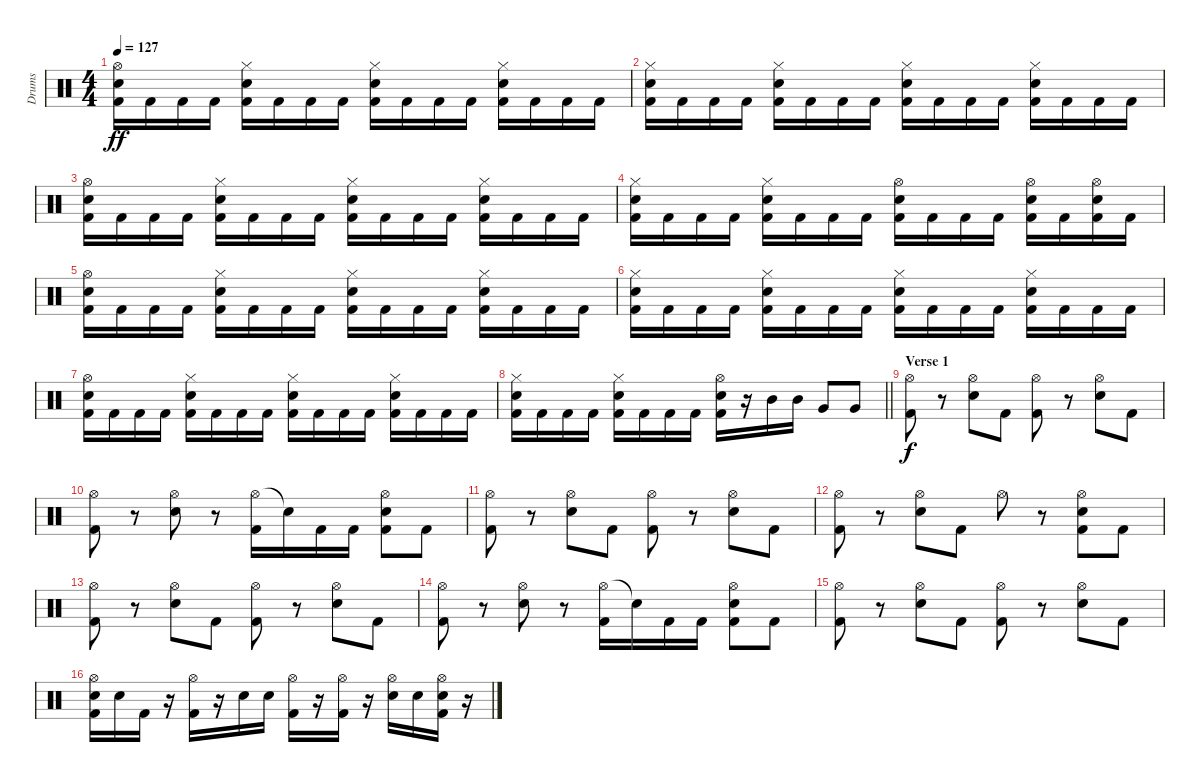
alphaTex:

\track ("Drums" "Drums") {instrument percussion}
\staff {score}
\articulation defaults
\ts (4 4)
\tempo 127
\clef neutral
\ks c
("Hi-Hat (open)" "Electric Snare (hit)" "Kick (hit) 2").16{dy ff} "Kick (hit) 2".16 "Kick (hit) 2".16 "Kick (hit) 2".16 ("Hi-Hat (closed)" "Electric Snare (hit)" "Kick (hit) 2").16 "Kick (hit) 2".16 "Kick (hit) 2".16 "Kick (hit) 2".16 ("Hi-Hat (closed)" "Electric Snare (hit)" "Kick (hit) 2").16 "Kick (hit) 2".16 "Kick (hit) 2".16 "Kick (hit) 2".16 ("Hi-Hat (closed)" "Electric Snare (hit)" "Kick (hit) 2").16 "Kick (hit) 2".16 "Kick (hit) 2".16 "Kick (hit) 2".16 |
("Hi-Hat (closed)" "Electric Snare (hit)" "Kick (hit) 2").16 "Kick (hit) 2".16 "Kick (hit) 2".16 "Kick (hit) 2".16 ("Hi-Hat (closed)" "Electric Snare (hit)" "Kick (hit) 2").16 "Kick (hit) 2".16 "Kick (hit) 2".16 "Kick (hit) 2".16 ("Hi-Hat (closed)" "Electric Snare (hit)" "Kick (hit) 2").16 "Kick (hit) 2".16 "Kick (hit) 2".16 "Kick (hit) 2".16 ("Hi-Hat (closed)" "Electric Snare (hit)" "Kick (hit) 2").16 "Kick (hit) 2".16 "Kick (hit) 2".16 "Kick (hit) 2".16 |
("Hi-Hat (open)" "Electric Snare (hit)" "Kick (hit) 2").16 "Kick (hit) 2".16 "Kick (hit) 2".16 "Kick (hit) 2".16 ("Hi-Hat (closed)" "Electric Snare (hit)" "Kick (hit) 2").16 "Kick (hit) 2".16 "Kick (hit) 2".16 "Kick (hit) 2".16 ("Hi-Hat (closed)" "Electric Snare (hit)" "Kick (hit) 2").16 "Kick (hit) 2".16 "Kick (hit) 2".16 "Kick (hit) 2".16 ("Hi-Hat (closed)" "Electric Snare (hit)" "Kick (hit) 2").16 "Kick (hit) 2".16 "Kick (hit) 2".16 "Kick (hit) 2".16 |
("Hi-Hat (closed)" "Electric Snare (hit)" "Kick (hit) 2").16 "Kick (hit) 2".16 "Kick (hit) 2".16 "Kick (hit) 2".16 ("Hi-Hat (closed)" "Electric Snare (hit)" "Kick (hit) 2").16 "Kick (hit) 2".16 "Kick (hit) 2".16 "Kick (hit) 2".16 ("Hi-Hat (open)" "Electric Snare (hit)" "Kick (hit) 2").16 "Kick (hit) 2".16 "Kick (hit) 2".16 "Kick (hit) 2".16 ("Hi-Hat (open)" "Electric Snare (hit)" "Kick (hit) 2").16 "Kick (hit) 2".16 ("Hi-Hat (open)" "Electric Snare (hit)" "Kick (hit) 2").16 "Kick (hit) 2".16 |
("Hi-Hat (open)" "Electric Snare (hit)" "Kick (hit) 2").16 "Kick (hit) 2".16 "Kick (hit) 2".16 "Kick (hit) 2".16 ("Hi-Hat (closed)" "Electric Snare (hit)" "Kick (hit) 2").16 "Kick (hit) 2".16 "Kick (hit) 2".16 "Kick (hit) 2".16 ("Hi-Hat (closed)" "Electric Snare (hit)" "Kick (hit) 2").16 "Kick (hit) 2".16 "Kick (hit) 2".16 "Kick (hit) 2".16 ("Hi-Hat (closed)" "Electric Snare (hit)" "Kick (hit) 2").16 "Kick (hit) 2".16 "Kick (hit) 2".16 "Kick (hit) 2".16 |
("Hi-Hat (closed)" "Electric Snare (hit)" "Kick (hit) 2").16 "Kick (hit) 2".16 "Kick (hit) 2".16 "Kick (hit) 2".16 ("Hi-Hat (closed)" "Electric Snare (hit)" "Kick (hit) 2").16 "Kick (hit) 2".16 "Kick (hit) 2".16 "Kick (hit) 2".16 ("Hi-Hat (closed)" "Electric Snare (hit)" "Kick (hit) 2").16 "Kick (hit) 2".16 "Kick (hit) 2".16 "Kick (hit) 2".16 ("Hi-Hat (closed)" "Electric Snare (hit)" "Kick (hit) 2").16 "Kick (hit) 2".16 "Kick (hit) 2".16 "Kick (hit) 2".16 |
("Hi-Hat (open)" "Electric Snare (hit)" "Kick (hit) 2").16 "Kick (hit) 2".16 "Kick (hit) 2".16 "Kick (hit) 2".16 ("Hi-Hat (closed)" "Electric Snare (hit)" "Kick (hit) 2").16 "Kick (hit) 2".16 "Kick (hit) 2".16 "Kick (hit) 2".16 ("Hi-Hat (closed)" "Electric Snare (hit)" "Kick (hit) 2").16 "Kick (hit) 2".16 "Kick (hit) 2".16 "Kick (hit) 2".16 ("Hi-Hat (closed)" "Electric Snare (hit)" "Kick (hit) 2").16 "Kick (hit) 2".16 "Kick (hit) 2".16 "Kick (hit) 2".16 |
\barLineRight lightlight
("Hi-Hat (closed)" "Electric Snare (hit)" "Kick (hit) 2").16 "Kick (hit) 2".16 "Kick (hit) 2".16 "Kick (hit) 2".16 ("Hi-Hat (closed)" "Electric Snare (hit)" "Kick (hit) 2").16 "Kick (hit) 2".16 "Kick (hit) 2".16 "Kick (hit) 2".16 ("Hi-Hat (open)" "Electric Snare (hit)" "Kick (hit) 2").16 r.16 "Mid Tom (hit)".16 "Mid Tom (hit)".16 "Very Low Tom (hit)".8 "Very Low Tom (hit)".8 |
\section ("" "Verse 1")
("Hi-Hat (open)" "Kick (hit) 2").8{dy f} r.8 ("Hi-Hat (open)" "Electric Snare (hit)").8 "Kick (hit) 2".8 ("Hi-Hat (open)" "Kick (hit) 2").8 r.8 ("Hi-Hat (open)" "Electric Snare (hit)").8 "Kick (hit) 2".8 |
("Hi-Hat (open)" "Kick (hit) 2").8 r.8 ("Hi-Hat (open)" "Electric Snare (hit)").8 r.8 ("Hi-Hat (open)" "Kick (hit) 2").16 "Snare (hit)"{t}.16 "Kick (hit) 2".16 "Kick (hit) 2".16 ("Hi-Hat (open)" "Electric Snare (hit)" "Kick (hit) 2").8 "Kick (hit) 2".8 |
("Hi-Hat (open)" "Kick (hit) 2").8 r.8 ("Hi-Hat (open)" "Electric Snare (hit)").8 "Kick (hit) 2".8 ("Hi-Hat (open)" "Kick (hit) 2").8 r.8 ("Hi-Hat (open)" "Electric Snare (hit)").8 "Kick (hit) 2".8 |
("Hi-Hat (open)" "Kick (hit) 2").8 r.8 ("Hi-Hat (open)" "Electric Snare (hit)").8 "Kick (hit) 2".8 "Hi-Hat (open)".8 r.8 ("Hi-Hat (open)" "Electric Snare (hit)" "Kick (hit) 2").8 "Kick (hit) 2".8 |
("Hi-Hat (open)" "Kick (hit) 2").8 r.8 ("Hi-Hat (open)" "Electric Snare (hit)").8 "Kick (hit) 2".8 ("Hi-Hat (open)" "Kick (hit) 2").8 r.8 ("Hi-Hat (open)" "Electric Snare (hit)").8 "Kick (hit) 2".8 |
("Hi-Hat (open)" "Kick (hit) 2").8 r.8 ("Hi-Hat (open)" "Electric Snare (hit)").8 r.8 ("Hi-Hat (open)" "Kick (hit) 2").16 "Snare (hit)"{t}.16 "Kick (hit) 2".16 "Kick (hit) 2".16 ("Hi-Hat (open)" "Electric Snare (hit)" "Kick (hit) 2").8 "Kick (hit) 2".8 |
("Hi-Hat (open)" "Kick (hit) 2").8 r.8 ("Hi-Hat (open)" "Electric Snare (hit)").8 "Kick (hit) 2".8 ("Hi-Hat (open)" "Kick (hit) 2").8 r.8 ("Hi-Hat (open)" "Electric Snare (hit)").8 "Kick (hit) 2".8 |
("Hi-Hat (open)" "Electric Snare (hit)" "Kick (hit) 2").16 "Electric Snare (hit)".16 "Kick (hit) 2".16 r.16 ("Hi-Hat (open)" "Kick (hit) 2").16 r.16 "Electric Snare (hit)".16 "Electric Snare (hit)".16 ("Hi-Hat (open)" "Kick (hit) 2").16 r.16 ("Hi-Hat (open)" "Kick (hit) 2").16 r.16 ("Hi-Hat (open)" "Electric Snare (hit)").16 "Electric Snare (hit)".16 ("Hi-Hat (open)" "Electric Snare (hit)" "Kick (hit) 2").16 r.16
